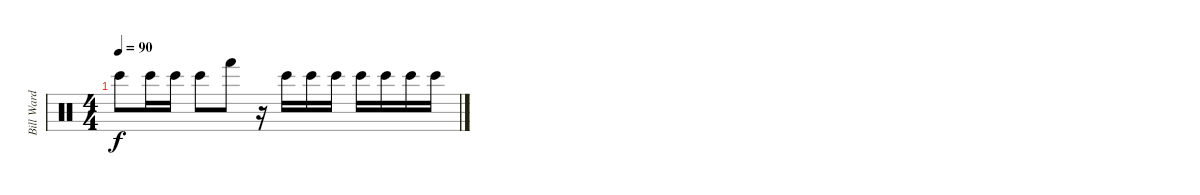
\track ("Bill Ward" "Bill Ward") {instrument percussion}
\staff {score}
\articulation defaults
\ts (4 4)
\tempo 90
\clef neutral
\ks c "Bongo High (hit)".8{dy f} "Bongo High (hit)".16 "Bongo High (hit)".16 "Bongo High (hit)".8 "Hand (hit)".8
r.16 "Bongo High (hit)".16 "Bongo High (hit)".16 "Bongo High (hit)".16 "Bongo High (hit)".16 "Bongo High (hit)".16 "Bongo High (hit)".16 "Bongo High (hit)".16
